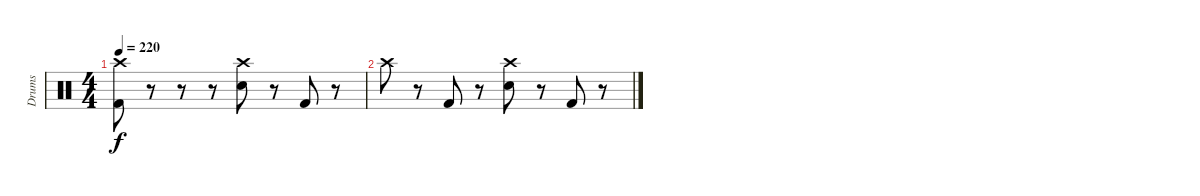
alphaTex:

\track ("Drums" "Drums") {instrument percussion}
\staff {score}
\articulation defaults
\ts (4 4)
\tempo 220
\clef neutral
\ks c
("Crash high (hit)" "Kick (hit) 2").8{dy f} r.8 r.8 r.8 ("Crash high (hit)" "Electric Snare (hit)").8 r.8 "Kick (hit) 2".8 r.8 |
"Crash high (hit)".8 r.8 "Kick (hit) 2".8 r.8 ("Crash high (hit)" "Electric Snare (hit)").8 r.8 "Kick (hit) 2".8 r.8
